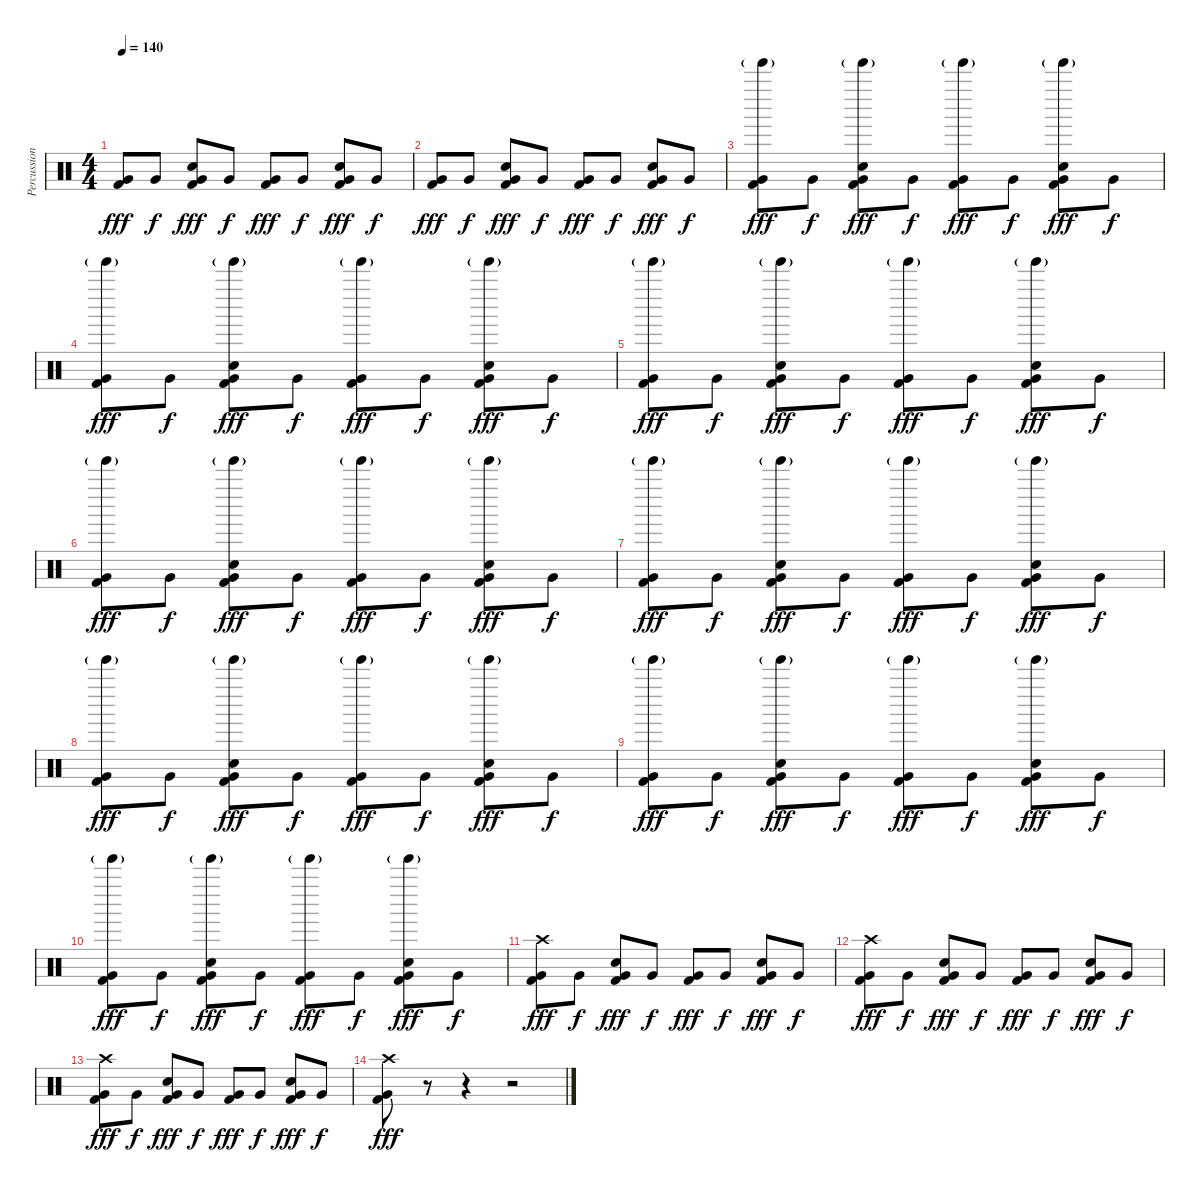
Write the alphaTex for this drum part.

\track ("Percussion" "Percussion") {instrument percussion}
\staff {score}
\articulation defaults
\ts (4 4)
\tempo 140
\clef neutral
\ks c
("Very Low Tom (hit)" "Kick (hit) 2").8{dy fff} "Very Low Tom (hit)".8{dy f} ("Very Low Tom (hit)" "Snare (hit) 2" "Kick (hit) 2").8{dy fff} "Very Low Tom (hit)".8{dy f} ("Very Low Tom (hit)" "Kick (hit) 2").8{dy fff} "Very Low Tom (hit)".8{dy f} ("Very Low Tom (hit)" "Snare (hit) 2" "Kick (hit) 2").8{dy fff} "Very Low Tom (hit)".8{dy f} |
("Very Low Tom (hit)" "Kick (hit) 2").8{dy fff} "Very Low Tom (hit)".8{dy f} ("Very Low Tom (hit)" "Snare (hit) 2" "Kick (hit) 2").8{dy fff} "Very Low Tom (hit)".8{dy f} ("Very Low Tom (hit)" "Kick (hit) 2").8{dy fff} "Very Low Tom (hit)".8{dy f} ("Very Low Tom (hit)" "Snare (hit) 2" "Kick (hit) 2").8{dy fff} "Very Low Tom (hit)".8{dy f} |
("Tinkle Bell (hit)"{g} "Very Low Tom (hit)" "Kick (hit) 2").8{dy fff} "Very Low Tom (hit)".8{dy f} ("Tinkle Bell (hit)"{g} "Very Low Tom (hit)" "Snare (hit) 2" "Kick (hit) 2").8{dy fff} "Very Low Tom (hit)".8{dy f} ("Tinkle Bell (hit)"{g} "Very Low Tom (hit)" "Kick (hit) 2").8{dy fff} "Very Low Tom (hit)".8{dy f} ("Tinkle Bell (hit)"{g} "Very Low Tom (hit)" "Snare (hit) 2" "Kick (hit) 2").8{dy fff} "Very Low Tom (hit)".8{dy f} |
("Tinkle Bell (hit)"{g} "Very Low Tom (hit)" "Kick (hit) 2").8{dy fff} "Very Low Tom (hit)".8{dy f} ("Tinkle Bell (hit)"{g} "Very Low Tom (hit)" "Snare (hit) 2" "Kick (hit) 2").8{dy fff} "Very Low Tom (hit)".8{dy f} ("Tinkle Bell (hit)"{g} "Very Low Tom (hit)" "Kick (hit) 2").8{dy fff} "Very Low Tom (hit)".8{dy f} ("Tinkle Bell (hit)"{g} "Very Low Tom (hit)" "Snare (hit) 2" "Kick (hit) 2").8{dy fff} "Very Low Tom (hit)".8{dy f} |
("Tinkle Bell (hit)"{g} "Very Low Tom (hit)" "Kick (hit) 2").8{dy fff} "Very Low Tom (hit)".8{dy f} ("Tinkle Bell (hit)"{g} "Very Low Tom (hit)" "Snare (hit) 2" "Kick (hit) 2").8{dy fff} "Very Low Tom (hit)".8{dy f} ("Tinkle Bell (hit)"{g} "Very Low Tom (hit)" "Kick (hit) 2").8{dy fff} "Very Low Tom (hit)".8{dy f} ("Tinkle Bell (hit)"{g} "Very Low Tom (hit)" "Snare (hit) 2" "Kick (hit) 2").8{dy fff} "Very Low Tom (hit)".8{dy f} |
("Tinkle Bell (hit)"{g} "Very Low Tom (hit)" "Kick (hit) 2").8{dy fff} "Very Low Tom (hit)".8{dy f} ("Tinkle Bell (hit)"{g} "Very Low Tom (hit)" "Snare (hit) 2" "Kick (hit) 2").8{dy fff} "Very Low Tom (hit)".8{dy f} ("Tinkle Bell (hit)"{g} "Very Low Tom (hit)" "Kick (hit) 2").8{dy fff} "Very Low Tom (hit)".8{dy f} ("Tinkle Bell (hit)"{g} "Very Low Tom (hit)" "Snare (hit) 2" "Kick (hit) 2").8{dy fff} "Very Low Tom (hit)".8{dy f} |
("Tinkle Bell (hit)"{g} "Very Low Tom (hit)" "Kick (hit) 2").8{dy fff} "Very Low Tom (hit)".8{dy f} ("Tinkle Bell (hit)"{g} "Very Low Tom (hit)" "Snare (hit) 2" "Kick (hit) 2").8{dy fff} "Very Low Tom (hit)".8{dy f} ("Tinkle Bell (hit)"{g} "Very Low Tom (hit)" "Kick (hit) 2").8{dy fff} "Very Low Tom (hit)".8{dy f} ("Tinkle Bell (hit)"{g} "Very Low Tom (hit)" "Snare (hit) 2" "Kick (hit) 2").8{dy fff} "Very Low Tom (hit)".8{dy f} |
("Tinkle Bell (hit)"{g} "Very Low Tom (hit)" "Kick (hit) 2").8{dy fff} "Very Low Tom (hit)".8{dy f} ("Tinkle Bell (hit)"{g} "Very Low Tom (hit)" "Snare (hit) 2" "Kick (hit) 2").8{dy fff} "Very Low Tom (hit)".8{dy f} ("Tinkle Bell (hit)"{g} "Very Low Tom (hit)" "Kick (hit) 2").8{dy fff} "Very Low Tom (hit)".8{dy f} ("Tinkle Bell (hit)"{g} "Very Low Tom (hit)" "Snare (hit) 2" "Kick (hit) 2").8{dy fff} "Very Low Tom (hit)".8{dy f} |
("Tinkle Bell (hit)"{g} "Very Low Tom (hit)" "Kick (hit) 2").8{dy fff} "Very Low Tom (hit)".8{dy f} ("Tinkle Bell (hit)"{g} "Very Low Tom (hit)" "Snare (hit) 2" "Kick (hit) 2").8{dy fff} "Very Low Tom (hit)".8{dy f} ("Tinkle Bell (hit)"{g} "Very Low Tom (hit)" "Kick (hit) 2").8{dy fff} "Very Low Tom (hit)".8{dy f} ("Tinkle Bell (hit)"{g} "Very Low Tom (hit)" "Snare (hit) 2" "Kick (hit) 2").8{dy fff} "Very Low Tom (hit)".8{dy f} |
("Tinkle Bell (hit)"{g} "Very Low Tom (hit)" "Kick (hit) 2").8{dy fff} "Very Low Tom (hit)".8{dy f} ("Tinkle Bell (hit)"{g} "Very Low Tom (hit)" "Snare (hit) 2" "Kick (hit) 2").8{dy fff} "Very Low Tom (hit)".8{dy f} ("Tinkle Bell (hit)"{g} "Very Low Tom (hit)" "Kick (hit) 2").8{dy fff} "Very Low Tom (hit)".8{dy f} ("Tinkle Bell (hit)"{g} "Very Low Tom (hit)" "Snare (hit) 2" "Kick (hit) 2").8{dy fff} "Very Low Tom (hit)".8{dy f} |
("Crash high (hit)" "Very Low Tom (hit)" "Kick (hit) 2").8{dy fff} "Very Low Tom (hit)".8{dy f} ("Very Low Tom (hit)" "Snare (hit) 2" "Kick (hit) 2").8{dy fff} "Very Low Tom (hit)".8{dy f} ("Very Low Tom (hit)" "Kick (hit) 2").8{dy fff} "Very Low Tom (hit)".8{dy f} ("Very Low Tom (hit)" "Snare (hit) 2" "Kick (hit) 2").8{dy fff} "Very Low Tom (hit)".8{dy f} |
("Crash high (hit)" "Very Low Tom (hit)" "Kick (hit) 2").8{dy fff} "Very Low Tom (hit)".8{dy f} ("Very Low Tom (hit)" "Snare (hit) 2" "Kick (hit) 2").8{dy fff} "Very Low Tom (hit)".8{dy f} ("Very Low Tom (hit)" "Kick (hit) 2").8{dy fff} "Very Low Tom (hit)".8{dy f} ("Very Low Tom (hit)" "Snare (hit) 2" "Kick (hit) 2").8{dy fff} "Very Low Tom (hit)".8{dy f} |
("Crash high (hit)" "Very Low Tom (hit)" "Kick (hit) 2").8{dy fff} "Very Low Tom (hit)".8{dy f} ("Very Low Tom (hit)" "Snare (hit) 2" "Kick (hit) 2").8{dy fff} "Very Low Tom (hit)".8{dy f} ("Very Low Tom (hit)" "Kick (hit) 2").8{dy fff} "Very Low Tom (hit)".8{dy f} ("Very Low Tom (hit)" "Snare (hit) 2" "Kick (hit) 2").8{dy fff} "Very Low Tom (hit)".8{dy f} |
("Crash high (hit)" "Very Low Tom (hit)" "Kick (hit) 2").8{dy fff} r.8 r.4 r.2
